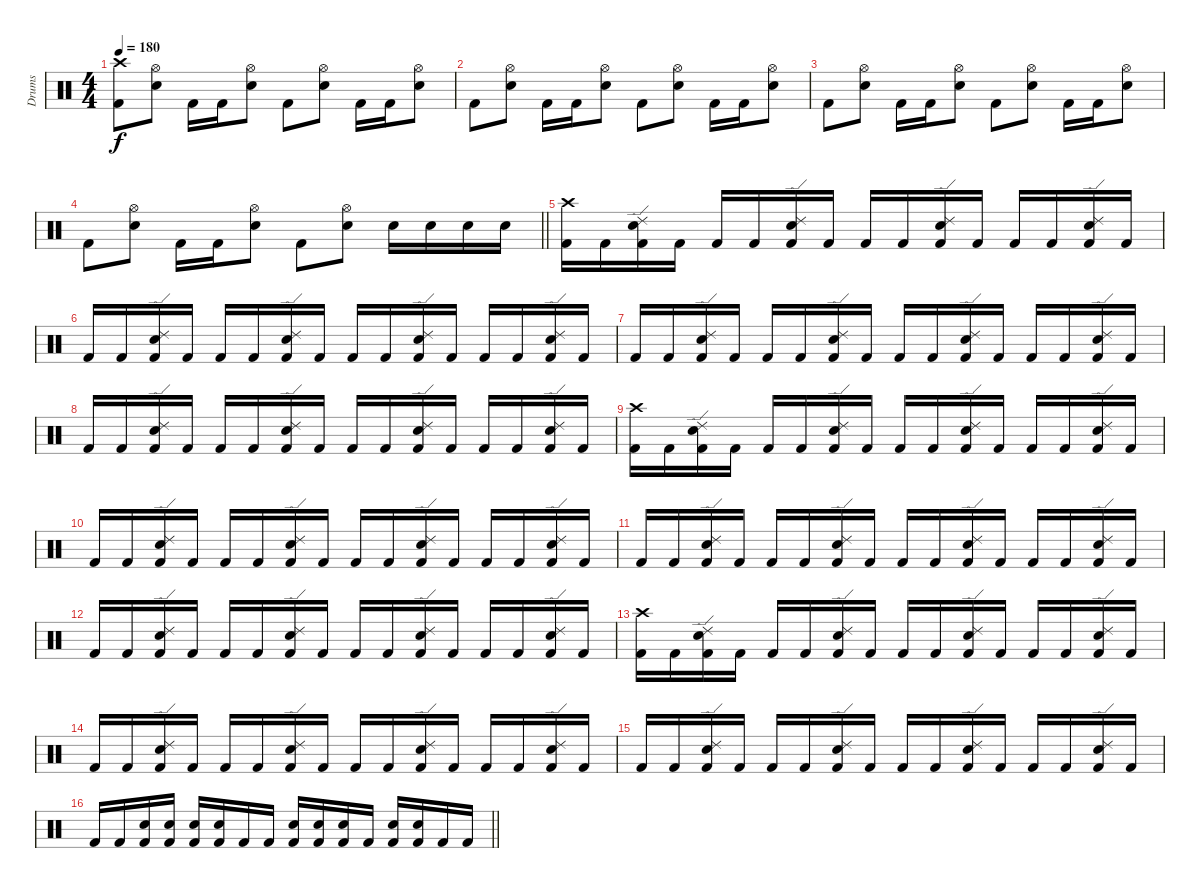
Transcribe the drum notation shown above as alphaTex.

\track ("Drums" "Drums") {instrument percussion}
\staff {score}
\articulation defaults
\ts (4 4)
\tempo 180
\clef neutral
\ks c
("Crash high (hit)" "Kick (hit) 2").8{dy f} ("Hi-Hat (open)" "Electric Snare (hit)").8 "Kick (hit) 2".16 "Kick (hit) 2".16 ("Hi-Hat (open)" "Electric Snare (hit)").8 "Kick (hit) 2".8 ("Hi-Hat (open)" "Electric Snare (hit)").8 "Kick (hit) 2".16 "Kick (hit) 2".16 ("Hi-Hat (open)" "Electric Snare (hit)").8 |
"Kick (hit) 2".8 ("Hi-Hat (open)" "Electric Snare (hit)").8 "Kick (hit) 2".16 "Kick (hit) 2".16 ("Hi-Hat (open)" "Electric Snare (hit)").8 "Kick (hit) 2".8 ("Hi-Hat (open)" "Electric Snare (hit)").8 "Kick (hit) 2".16 "Kick (hit) 2".16 ("Hi-Hat (open)" "Electric Snare (hit)").8 |
"Kick (hit) 2".8 ("Hi-Hat (open)" "Electric Snare (hit)").8 "Kick (hit) 2".16 "Kick (hit) 2".16 ("Hi-Hat (open)" "Electric Snare (hit)").8 "Kick (hit) 2".8 ("Hi-Hat (open)" "Electric Snare (hit)").8 "Kick (hit) 2".16 "Kick (hit) 2".16 ("Hi-Hat (open)" "Electric Snare (hit)").8 |
\barLineRight lightlight "Kick (hit) 2".8
("Hi-Hat (open)" "Electric Snare (hit)").8 "Kick (hit) 2".16 "Kick (hit) 2".16 ("Hi-Hat (open)" "Electric Snare (hit)").8 "Kick (hit) 2".8 ("Hi-Hat (open)" "Electric Snare (hit)").8 "Electric Snare (hit)".16 "Electric Snare (hit)".16 "Electric Snare (hit)".16 "Electric Snare (hit)".16 |
\section ("" "")
("Crash high (hit)" "Kick (hit) 2").16 "Kick (hit) 2".16 ("Ride (edge) 2" "Electric Snare (hit)" "Kick (hit) 2").16 "Kick (hit) 2".16 "Kick (hit) 2".16 "Kick (hit) 2".16 ("Ride (edge) 2" "Electric Snare (hit)" "Kick (hit) 2").16 "Kick (hit) 2".16 "Kick (hit) 2".16 "Kick (hit) 2".16 ("Ride (edge) 2" "Electric Snare (hit)" "Kick (hit) 2").16 "Kick (hit) 2".16 "Kick (hit) 2".16 "Kick (hit) 2".16 ("Ride (edge) 2" "Electric Snare (hit)" "Kick (hit) 2").16 "Kick (hit) 2".16 |
"Kick (hit) 2".16 "Kick (hit) 2".16 ("Ride (edge) 2" "Electric Snare (hit)" "Kick (hit) 2").16 "Kick (hit) 2".16 "Kick (hit) 2".16 "Kick (hit) 2".16 ("Ride (edge) 2" "Electric Snare (hit)" "Kick (hit) 2").16 "Kick (hit) 2".16 "Kick (hit) 2".16 "Kick (hit) 2".16 ("Ride (edge) 2" "Electric Snare (hit)" "Kick (hit) 2").16 "Kick (hit) 2".16 "Kick (hit) 2".16 "Kick (hit) 2".16 ("Ride (edge) 2" "Electric Snare (hit)" "Kick (hit) 2").16 "Kick (hit) 2".16 |
"Kick (hit) 2".16 "Kick (hit) 2".16 ("Ride (edge) 2" "Electric Snare (hit)" "Kick (hit) 2").16 "Kick (hit) 2".16 "Kick (hit) 2".16 "Kick (hit) 2".16 ("Ride (edge) 2" "Electric Snare (hit)" "Kick (hit) 2").16 "Kick (hit) 2".16 "Kick (hit) 2".16 "Kick (hit) 2".16 ("Ride (edge) 2" "Electric Snare (hit)" "Kick (hit) 2").16 "Kick (hit) 2".16 "Kick (hit) 2".16 "Kick (hit) 2".16 ("Ride (edge) 2" "Electric Snare (hit)" "Kick (hit) 2").16 "Kick (hit) 2".16 |
"Kick (hit) 2".16 "Kick (hit) 2".16 ("Ride (edge) 2" "Electric Snare (hit)" "Kick (hit) 2").16 "Kick (hit) 2".16 "Kick (hit) 2".16 "Kick (hit) 2".16 ("Ride (edge) 2" "Electric Snare (hit)" "Kick (hit) 2").16 "Kick (hit) 2".16 "Kick (hit) 2".16 "Kick (hit) 2".16 ("Ride (edge) 2" "Electric Snare (hit)" "Kick (hit) 2").16 "Kick (hit) 2".16 "Kick (hit) 2".16 "Kick (hit) 2".16 ("Ride (edge) 2" "Electric Snare (hit)" "Kick (hit) 2").16 "Kick (hit) 2".16 |
("Crash high (hit)" "Kick (hit) 2").16 "Kick (hit) 2".16 ("Ride (edge) 2" "Electric Snare (hit)" "Kick (hit) 2").16 "Kick (hit) 2".16 "Kick (hit) 2".16 "Kick (hit) 2".16 ("Ride (edge) 2" "Electric Snare (hit)" "Kick (hit) 2").16 "Kick (hit) 2".16 "Kick (hit) 2".16 "Kick (hit) 2".16 ("Ride (edge) 2" "Electric Snare (hit)" "Kick (hit) 2").16 "Kick (hit) 2".16 "Kick (hit) 2".16 "Kick (hit) 2".16 ("Ride (edge) 2" "Electric Snare (hit)" "Kick (hit) 2").16 "Kick (hit) 2".16 |
"Kick (hit) 2".16 "Kick (hit) 2".16 ("Ride (edge) 2" "Electric Snare (hit)" "Kick (hit) 2").16 "Kick (hit) 2".16 "Kick (hit) 2".16 "Kick (hit) 2".16 ("Ride (edge) 2" "Electric Snare (hit)" "Kick (hit) 2").16 "Kick (hit) 2".16 "Kick (hit) 2".16 "Kick (hit) 2".16 ("Ride (edge) 2" "Electric Snare (hit)" "Kick (hit) 2").16 "Kick (hit) 2".16 "Kick (hit) 2".16 "Kick (hit) 2".16 ("Ride (edge) 2" "Electric Snare (hit)" "Kick (hit) 2").16 "Kick (hit) 2".16 |
"Kick (hit) 2".16 "Kick (hit) 2".16 ("Ride (edge) 2" "Electric Snare (hit)" "Kick (hit) 2").16 "Kick (hit) 2".16 "Kick (hit) 2".16 "Kick (hit) 2".16 ("Ride (edge) 2" "Electric Snare (hit)" "Kick (hit) 2").16 "Kick (hit) 2".16 "Kick (hit) 2".16 "Kick (hit) 2".16 ("Ride (edge) 2" "Electric Snare (hit)" "Kick (hit) 2").16 "Kick (hit) 2".16 "Kick (hit) 2".16 "Kick (hit) 2".16 ("Ride (edge) 2" "Electric Snare (hit)" "Kick (hit) 2").16 "Kick (hit) 2".16 |
"Kick (hit) 2".16 "Kick (hit) 2".16 ("Ride (edge) 2" "Electric Snare (hit)" "Kick (hit) 2").16 "Kick (hit) 2".16 "Kick (hit) 2".16 "Kick (hit) 2".16 ("Ride (edge) 2" "Electric Snare (hit)" "Kick (hit) 2").16 "Kick (hit) 2".16 "Kick (hit) 2".16 "Kick (hit) 2".16 ("Ride (edge) 2" "Electric Snare (hit)" "Kick (hit) 2").16 "Kick (hit) 2".16 "Kick (hit) 2".16 "Kick (hit) 2".16 ("Ride (edge) 2" "Electric Snare (hit)" "Kick (hit) 2").16 "Kick (hit) 2".16 |
("Crash high (hit)" "Kick (hit) 2").16 "Kick (hit) 2".16 ("Ride (edge) 2" "Electric Snare (hit)" "Kick (hit) 2").16 "Kick (hit) 2".16 "Kick (hit) 2".16 "Kick (hit) 2".16 ("Ride (edge) 2" "Electric Snare (hit)" "Kick (hit) 2").16 "Kick (hit) 2".16 "Kick (hit) 2".16 "Kick (hit) 2".16 ("Ride (edge) 2" "Electric Snare (hit)" "Kick (hit) 2").16 "Kick (hit) 2".16 "Kick (hit) 2".16 "Kick (hit) 2".16 ("Ride (edge) 2" "Electric Snare (hit)" "Kick (hit) 2").16 "Kick (hit) 2".16 |
"Kick (hit) 2".16 "Kick (hit) 2".16 ("Ride (edge) 2" "Electric Snare (hit)" "Kick (hit) 2").16 "Kick (hit) 2".16 "Kick (hit) 2".16 "Kick (hit) 2".16 ("Ride (edge) 2" "Electric Snare (hit)" "Kick (hit) 2").16 "Kick (hit) 2".16 "Kick (hit) 2".16 "Kick (hit) 2".16 ("Ride (edge) 2" "Electric Snare (hit)" "Kick (hit) 2").16 "Kick (hit) 2".16 "Kick (hit) 2".16 "Kick (hit) 2".16 ("Ride (edge) 2" "Electric Snare (hit)" "Kick (hit) 2").16 "Kick (hit) 2".16 |
"Kick (hit) 2".16 "Kick (hit) 2".16 ("Ride (edge) 2" "Electric Snare (hit)" "Kick (hit) 2").16 "Kick (hit) 2".16 "Kick (hit) 2".16 "Kick (hit) 2".16 ("Ride (edge) 2" "Electric Snare (hit)" "Kick (hit) 2").16 "Kick (hit) 2".16 "Kick (hit) 2".16 "Kick (hit) 2".16 ("Ride (edge) 2" "Electric Snare (hit)" "Kick (hit) 2").16 "Kick (hit) 2".16 "Kick (hit) 2".16 "Kick (hit) 2".16 ("Ride (edge) 2" "Electric Snare (hit)" "Kick (hit) 2").16 "Kick (hit) 2".16 |
\barLineRight lightlight "Kick (hit) 2".16 "Kick (hit) 2".16
("Electric Snare (hit)" "Kick (hit) 2").16 ("Electric Snare (hit)" "Kick (hit) 2").16 ("Electric Snare (hit)" "Kick (hit) 2").16 ("Electric Snare (hit)" "Kick (hit) 2").16 "Kick (hit) 2".16 "Kick (hit) 2".16 ("Electric Snare (hit)" "Kick (hit) 2").16 ("Electric Snare (hit)" "Kick (hit) 2").16 ("Electric Snare (hit)" "Kick (hit) 2").16 "Kick (hit) 2".16 ("Electric Snare (hit)" "Kick (hit) 2").16 ("Electric Snare (hit)" "Kick (hit) 2").16 "Kick (hit) 2".16 "Kick (hit) 2".16
